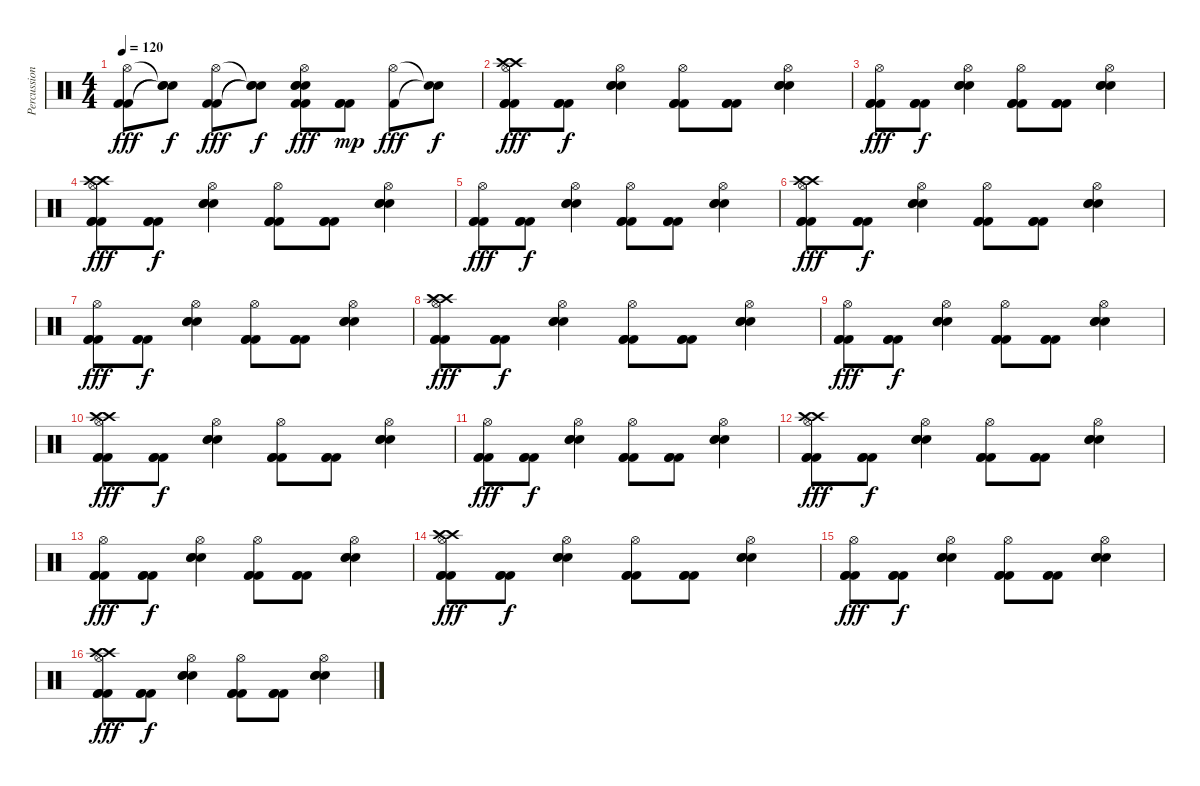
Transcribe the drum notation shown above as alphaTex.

\track ("Percussions" "Percussion") {instrument percussion}
\staff {score}
\articulation defaults
\ts (4 4)
\tempo 120
\clef neutral
\ks c
("Hi-Hat (open)" "Kick (hit) 2" "Kick (hit) 2").8{dy fff} ("Snare (hit)"{t} "Snare (hit)"{t} "Snare (hit)"{t}).8{dy f} ("Hi-Hat (open)" "Kick (hit) 2" "Kick (hit) 2").8{dy fff} ("Snare (hit)"{t} "Snare (hit)"{t} "Snare (hit)"{t}).8{dy f} ("Hi-Hat (open)" "Kick (hit) 2" "Snare (hit) 2" "Snare (hit) 2" "Snare (hit) 2" "Kick (hit) 2").8{dy fff} ("Kick (hit) 2" "Kick (hit) 2" "Kick (hit) 2").8{dy mp} ("Hi-Hat (open)" "Kick (hit) 2").8{dy fff} ("Snare (hit)"{t} "Snare (hit)"{t}).8{dy f} |
("Hi-Hat (open)" "Crash high (hit)" "Crash high (hit)" "Kick (hit) 2" "Kick (hit) 2" "Kick (hit) 2").8{dy fff} ("Kick (hit) 2" "Kick (hit) 2" "Kick (hit) 2").8{dy f} ("Hi-Hat (open)" "Snare (hit) 2" "Snare (hit) 2" "Snare (hit) 2").4 ("Hi-Hat (open)" "Kick (hit) 2" "Kick (hit) 2" "Kick (hit) 2").8 ("Kick (hit) 2" "Kick (hit) 2" "Kick (hit) 2").8 ("Hi-Hat (open)" "Snare (hit) 2" "Snare (hit) 2" "Snare (hit) 2").4 |
("Hi-Hat (open)" "Kick (hit) 2" "Kick (hit) 2" "Kick (hit) 2").8{dy fff} ("Kick (hit) 2" "Kick (hit) 2" "Kick (hit) 2").8{dy f} ("Hi-Hat (open)" "Snare (hit) 2" "Snare (hit) 2" "Snare (hit) 2").4 ("Hi-Hat (open)" "Kick (hit) 2" "Kick (hit) 2" "Kick (hit) 2").8 ("Kick (hit) 2" "Kick (hit) 2" "Kick (hit) 2").8 ("Hi-Hat (open)" "Snare (hit) 2" "Snare (hit) 2" "Snare (hit) 2").4 |
("Hi-Hat (open)" "Crash high (hit)" "Crash high (hit)" "Kick (hit) 2" "Kick (hit) 2" "Kick (hit) 2").8{dy fff} ("Kick (hit) 2" "Kick (hit) 2" "Kick (hit) 2").8{dy f} ("Hi-Hat (open)" "Snare (hit) 2" "Snare (hit) 2" "Snare (hit) 2").4 ("Hi-Hat (open)" "Kick (hit) 2" "Kick (hit) 2" "Kick (hit) 2").8 ("Kick (hit) 2" "Kick (hit) 2" "Kick (hit) 2").8 ("Hi-Hat (open)" "Snare (hit) 2" "Snare (hit) 2" "Snare (hit) 2").4 |
("Hi-Hat (open)" "Kick (hit) 2" "Kick (hit) 2" "Kick (hit) 2").8{dy fff} ("Kick (hit) 2" "Kick (hit) 2" "Kick (hit) 2").8{dy f} ("Hi-Hat (open)" "Snare (hit) 2" "Snare (hit) 2" "Snare (hit) 2").4 ("Hi-Hat (open)" "Kick (hit) 2" "Kick (hit) 2" "Kick (hit) 2").8 ("Kick (hit) 2" "Kick (hit) 2" "Kick (hit) 2").8 ("Hi-Hat (open)" "Snare (hit) 2" "Snare (hit) 2" "Snare (hit) 2").4 |
("Hi-Hat (open)" "Crash high (hit)" "Crash high (hit)" "Kick (hit) 2" "Kick (hit) 2" "Kick (hit) 2").8{dy fff} ("Kick (hit) 2" "Kick (hit) 2" "Kick (hit) 2").8{dy f} ("Hi-Hat (open)" "Snare (hit) 2" "Snare (hit) 2" "Snare (hit) 2").4 ("Hi-Hat (open)" "Kick (hit) 2" "Kick (hit) 2" "Kick (hit) 2").8 ("Kick (hit) 2" "Kick (hit) 2" "Kick (hit) 2").8 ("Hi-Hat (open)" "Snare (hit) 2" "Snare (hit) 2" "Snare (hit) 2").4 |
("Hi-Hat (open)" "Kick (hit) 2" "Kick (hit) 2" "Kick (hit) 2").8{dy fff} ("Kick (hit) 2" "Kick (hit) 2" "Kick (hit) 2").8{dy f} ("Hi-Hat (open)" "Snare (hit) 2" "Snare (hit) 2" "Snare (hit) 2").4 ("Hi-Hat (open)" "Kick (hit) 2" "Kick (hit) 2" "Kick (hit) 2").8 ("Kick (hit) 2" "Kick (hit) 2" "Kick (hit) 2").8 ("Hi-Hat (open)" "Snare (hit) 2" "Snare (hit) 2" "Snare (hit) 2").4 |
("Hi-Hat (open)" "Crash high (hit)" "Crash high (hit)" "Kick (hit) 2" "Kick (hit) 2" "Kick (hit) 2").8{dy fff} ("Kick (hit) 2" "Kick (hit) 2" "Kick (hit) 2").8{dy f} ("Hi-Hat (open)" "Snare (hit) 2" "Snare (hit) 2" "Snare (hit) 2").4 ("Hi-Hat (open)" "Kick (hit) 2" "Kick (hit) 2" "Kick (hit) 2").8 ("Kick (hit) 2" "Kick (hit) 2" "Kick (hit) 2").8 ("Hi-Hat (open)" "Snare (hit) 2" "Snare (hit) 2" "Snare (hit) 2").4 |
("Hi-Hat (open)" "Kick (hit) 2" "Kick (hit) 2" "Kick (hit) 2").8{dy fff} ("Kick (hit) 2" "Kick (hit) 2" "Kick (hit) 2").8{dy f} ("Hi-Hat (open)" "Snare (hit) 2" "Snare (hit) 2" "Snare (hit) 2").4 ("Hi-Hat (open)" "Kick (hit) 2" "Kick (hit) 2" "Kick (hit) 2").8 ("Kick (hit) 2" "Kick (hit) 2" "Kick (hit) 2").8 ("Hi-Hat (open)" "Snare (hit) 2" "Snare (hit) 2" "Snare (hit) 2").4 |
("Hi-Hat (open)" "Crash high (hit)" "Crash high (hit)" "Kick (hit) 2" "Kick (hit) 2" "Kick (hit) 2").8{dy fff} ("Kick (hit) 2" "Kick (hit) 2" "Kick (hit) 2").8{dy f} ("Hi-Hat (open)" "Snare (hit) 2" "Snare (hit) 2" "Snare (hit) 2").4 ("Hi-Hat (open)" "Kick (hit) 2" "Kick (hit) 2" "Kick (hit) 2").8 ("Kick (hit) 2" "Kick (hit) 2" "Kick (hit) 2").8 ("Hi-Hat (open)" "Snare (hit) 2" "Snare (hit) 2" "Snare (hit) 2").4 |
("Hi-Hat (open)" "Kick (hit) 2" "Kick (hit) 2" "Kick (hit) 2").8{dy fff} ("Kick (hit) 2" "Kick (hit) 2" "Kick (hit) 2").8{dy f} ("Hi-Hat (open)" "Snare (hit) 2" "Snare (hit) 2" "Snare (hit) 2").4 ("Hi-Hat (open)" "Kick (hit) 2" "Kick (hit) 2" "Kick (hit) 2").8 ("Kick (hit) 2" "Kick (hit) 2" "Kick (hit) 2").8 ("Hi-Hat (open)" "Snare (hit) 2" "Snare (hit) 2" "Snare (hit) 2").4 |
("Hi-Hat (open)" "Crash high (hit)" "Crash high (hit)" "Kick (hit) 2" "Kick (hit) 2" "Kick (hit) 2").8{dy fff} ("Kick (hit) 2" "Kick (hit) 2" "Kick (hit) 2").8{dy f} ("Hi-Hat (open)" "Snare (hit) 2" "Snare (hit) 2" "Snare (hit) 2").4 ("Hi-Hat (open)" "Kick (hit) 2" "Kick (hit) 2" "Kick (hit) 2").8 ("Kick (hit) 2" "Kick (hit) 2" "Kick (hit) 2").8 ("Hi-Hat (open)" "Snare (hit) 2" "Snare (hit) 2" "Snare (hit) 2").4 |
("Hi-Hat (open)" "Kick (hit) 2" "Kick (hit) 2" "Kick (hit) 2").8{dy fff} ("Kick (hit) 2" "Kick (hit) 2" "Kick (hit) 2").8{dy f} ("Hi-Hat (open)" "Snare (hit) 2" "Snare (hit) 2" "Snare (hit) 2").4 ("Hi-Hat (open)" "Kick (hit) 2" "Kick (hit) 2" "Kick (hit) 2").8 ("Kick (hit) 2" "Kick (hit) 2" "Kick (hit) 2").8 ("Hi-Hat (open)" "Snare (hit) 2" "Snare (hit) 2" "Snare (hit) 2").4 |
("Hi-Hat (open)" "Crash high (hit)" "Crash high (hit)" "Kick (hit) 2" "Kick (hit) 2" "Kick (hit) 2").8{dy fff} ("Kick (hit) 2" "Kick (hit) 2" "Kick (hit) 2").8{dy f} ("Hi-Hat (open)" "Snare (hit) 2" "Snare (hit) 2" "Snare (hit) 2").4 ("Hi-Hat (open)" "Kick (hit) 2" "Kick (hit) 2" "Kick (hit) 2").8 ("Kick (hit) 2" "Kick (hit) 2" "Kick (hit) 2").8 ("Hi-Hat (open)" "Snare (hit) 2" "Snare (hit) 2" "Snare (hit) 2").4 |
("Hi-Hat (open)" "Kick (hit) 2" "Kick (hit) 2" "Kick (hit) 2").8{dy fff} ("Kick (hit) 2" "Kick (hit) 2" "Kick (hit) 2").8{dy f} ("Hi-Hat (open)" "Snare (hit) 2" "Snare (hit) 2" "Snare (hit) 2").4 ("Hi-Hat (open)" "Kick (hit) 2" "Kick (hit) 2" "Kick (hit) 2").8 ("Kick (hit) 2" "Kick (hit) 2" "Kick (hit) 2").8 ("Hi-Hat (open)" "Snare (hit) 2" "Snare (hit) 2" "Snare (hit) 2").4 |
("Hi-Hat (open)" "Crash high (hit)" "Crash high (hit)" "Kick (hit) 2" "Kick (hit) 2" "Kick (hit) 2").8{dy fff} ("Kick (hit) 2" "Kick (hit) 2" "Kick (hit) 2").8{dy f} ("Hi-Hat (open)" "Snare (hit) 2" "Snare (hit) 2" "Snare (hit) 2").4 ("Hi-Hat (open)" "Kick (hit) 2" "Kick (hit) 2" "Kick (hit) 2").8 ("Kick (hit) 2" "Kick (hit) 2" "Kick (hit) 2").8 ("Hi-Hat (open)" "Snare (hit) 2" "Snare (hit) 2" "Snare (hit) 2").4
